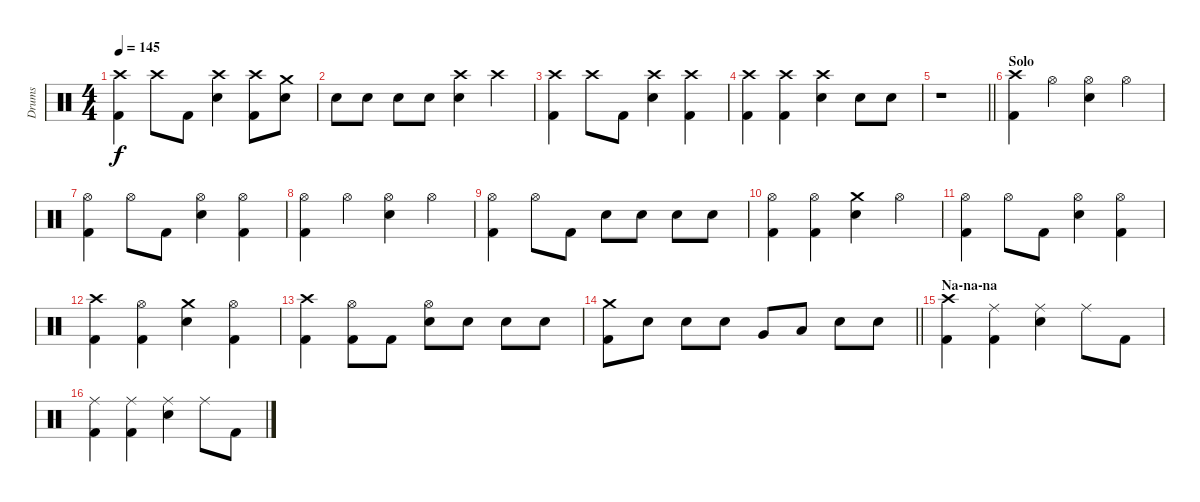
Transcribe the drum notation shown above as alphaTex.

\track ("Drums" "Drums") {instrument percussion}
\staff {score}
\articulation defaults
\ts (4 4)
\tempo 145
\clef neutral
\ks c
("Crash high (hit)" "Kick (hit) 2").4{dy f} "Crash high (hit)".8 "Kick (hit) 2".8 ("Crash high (hit)" "Snare (hit) 2").4 ("Crash high (hit)" "Kick (hit) 2").8 ("Crash medium (hit)" "Snare (hit) 2").8 |
"Snare (hit) 2".8 "Snare (hit) 2".8 "Snare (hit) 2".8 "Snare (hit) 2".8 ("Crash high (hit)" "Snare (hit) 2").4 "Crash high (hit)".4 |
("Crash high (hit)" "Kick (hit) 2").4 "Crash high (hit)".8 "Kick (hit) 2".8 ("Crash high (hit)" "Snare (hit) 2").4 ("Crash high (hit)" "Kick (hit) 2").4 |
("Crash high (hit)" "Kick (hit) 2").4 ("Crash high (hit)" "Kick (hit) 2").4 ("Crash high (hit)" "Snare (hit) 2").4 "Snare (hit) 2".8 "Snare (hit) 2".8 |
\barLineRight lightlight
r.1 |
\section ("" "Solo")
("Crash high (hit)" "Kick (hit) 2").4 "Hi-Hat (open)".4 ("Hi-Hat (open)" "Snare (hit) 2").4 "Hi-Hat (open)".4 |
("Hi-Hat (open)" "Kick (hit) 2").4 "Hi-Hat (open)".8 "Kick (hit) 2".8 ("Hi-Hat (open)" "Snare (hit) 2").4 ("Hi-Hat (open)" "Kick (hit) 2").4 |
("Hi-Hat (open)" "Kick (hit) 2").4 "Hi-Hat (open)".4 ("Hi-Hat (open)" "Snare (hit) 2").4 "Hi-Hat (open)".4 |
("Hi-Hat (open)" "Kick (hit) 2").4 "Hi-Hat (open)".8 "Kick (hit) 2".8 "Snare (hit) 2".8 "Snare (hit) 2".8 "Snare (hit) 2".8 "Snare (hit) 2".8 |
("Hi-Hat (open)" "Kick (hit) 2").4 ("Hi-Hat (open)" "Kick (hit) 2").4 ("Crash medium (hit)" "Snare (hit) 2").4 "Hi-Hat (open)".4 |
("Hi-Hat (open)" "Kick (hit) 2").4 "Hi-Hat (open)".8 "Kick (hit) 2".8 ("Hi-Hat (open)" "Snare (hit) 2").4 ("Hi-Hat (open)" "Kick (hit) 2").4 |
("Crash high (hit)" "Kick (hit) 2").4 ("Hi-Hat (open)" "Kick (hit) 2").4 ("Crash medium (hit)" "Snare (hit) 2").4 ("Hi-Hat (open)" "Kick (hit) 2").4 |
("Crash high (hit)" "Kick (hit) 2").4 ("Hi-Hat (open)" "Kick (hit) 2").8 "Kick (hit) 2".8 ("Hi-Hat (open)" "Snare (hit) 2").8 "Snare (hit) 2".8 "Snare (hit) 2".8 "Snare (hit) 2".8 |
\barLineRight lightlight
("Crash medium (hit)" "Kick (hit) 2").8 "Snare (hit) 2".8 "Snare (hit) 2".8 "Snare (hit) 2".8 "Very Low Tom (hit)".8 "Low Floor Tom (hit)".8 "Snare (hit) 2".8 "Snare (hit) 2".8 |
\section ("" "Na-na-na")
("Crash high (hit)" "Kick (hit) 2").4 ("Ride (middle)" "Kick (hit) 2").4 ("Ride (middle)" "Snare (hit) 2").4 "Ride (middle)".8 "Kick (hit) 2".8 |
("Ride (middle)" "Kick (hit) 2").4 ("Ride (middle)" "Kick (hit) 2").4 ("Ride (middle)" "Snare (hit) 2").4 "Ride (middle)".8 "Kick (hit) 2".8
